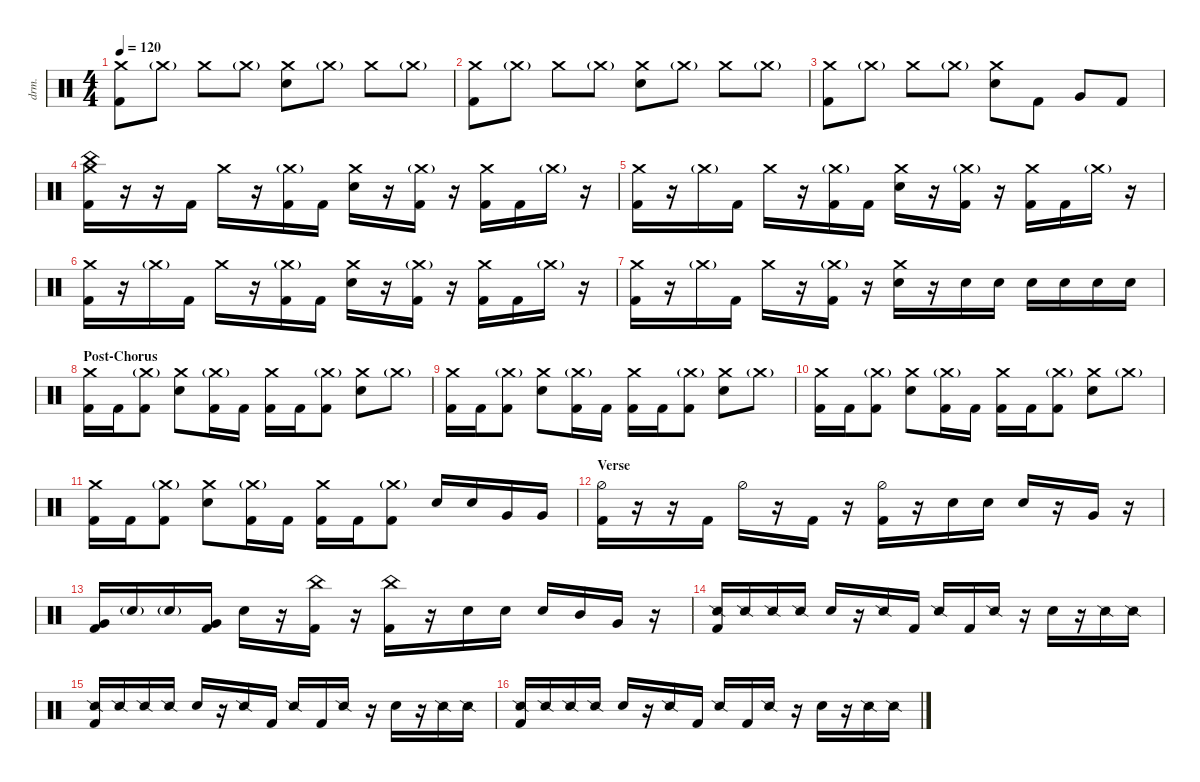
\defaultSystemsLayout 4
\hideDynamics
\bracketExtendMode nobrackets
\track ("Drums - Mario" "drm.") {instrument percussion}
\staff {score}
\articulation defaults
\ts (4 4)
\tempo 120
\clef neutral
\ks c
("Kick (hit) 2" "Crash medium (hit)").8{dy ff} "Crash medium (hit)"{g}.8 "Crash medium (hit)".8 "Crash medium (hit)"{g}.8 ("Crash medium (hit)" "Snare (hit) 2").8 "Crash medium (hit)"{g}.8 "Crash medium (hit)".8 "Crash medium (hit)"{g}.8 |
("Kick (hit) 2" "Crash medium (hit)").8 "Crash medium (hit)"{g}.8 "Crash medium (hit)".8 "Crash medium (hit)"{g}.8 ("Crash medium (hit)" "Snare (hit) 2").8 "Crash medium (hit)"{g}.8 "Crash medium (hit)".8 "Crash medium (hit)"{g}.8 |
("Kick (hit) 2" "Crash medium (hit)").8 "Crash medium (hit)"{g}.8 "Crash medium (hit)".8 "Crash medium (hit)"{g}.8 ("Crash medium (hit)" "Snare (hit) 2").8 "Kick (hit) 2".8 "Very Low Tom (hit)".8 "Kick (hit) 2".8 |
("China (hit)" "Kick (hit) 2" "Crash medium (hit)").16 r.16 r.16 "Kick (hit) 2".16 "Crash medium (hit)".16 r.16 ("Kick (hit) 2" "Crash medium (hit)"{g}).16 "Kick (hit) 2".16 ("Snare (hit) 2" "Crash medium (hit)").16 r.16 ("Kick (hit) 2" "Crash medium (hit)"{g}).16 r.16 ("Kick (hit) 2" "Crash medium (hit)").16 "Kick (hit) 2".16 "Crash medium (hit)"{g}.16 r.16 |
("Kick (hit) 2" "Crash medium (hit)").16 r.16 "Crash medium (hit)"{g}.16 "Kick (hit) 2".16 "Crash medium (hit)".16 r.16 ("Kick (hit) 2" "Crash medium (hit)"{g}).16 "Kick (hit) 2".16 ("Snare (hit) 2" "Crash medium (hit)").16 r.16 ("Kick (hit) 2" "Crash medium (hit)"{g}).16 r.16 ("Kick (hit) 2" "Crash medium (hit)").16 "Kick (hit) 2".16 "Crash medium (hit)"{g}.16 r.16 |
("Kick (hit) 2" "Crash medium (hit)").16 r.16 "Crash medium (hit)"{g}.16 "Kick (hit) 2".16 "Crash medium (hit)".16 r.16 ("Kick (hit) 2" "Crash medium (hit)"{g}).16 "Kick (hit) 2".16 ("Snare (hit) 2" "Crash medium (hit)").16 r.16 ("Kick (hit) 2" "Crash medium (hit)"{g}).16 r.16 ("Kick (hit) 2" "Crash medium (hit)").16 "Kick (hit) 2".16 "Crash medium (hit)"{g}.16 r.16 |
("Kick (hit) 2" "Crash medium (hit)").16 r.16 "Crash medium (hit)"{g}.16 "Kick (hit) 2".16 "Crash medium (hit)".16 r.16 ("Kick (hit) 2" "Crash medium (hit)"{g}).16 r.16 ("Snare (hit) 2" "Crash medium (hit)").16 r.16 "Snare (hit) 2".16 "Snare (hit) 2".16 "Snare (hit) 2".16 "Snare (hit) 2".16 "Snare (hit) 2".16 "Snare (hit) 2".16 |
\section ("" "Post-Chorus")
("Kick (hit) 2" "Crash medium (hit)").16 "Kick (hit) 2".16 ("Kick (hit) 2" "Crash medium (hit)"{g}).8 ("Snare (hit) 2" "Crash medium (hit)").8 ("Kick (hit) 2" "Crash medium (hit)"{g}).16 "Kick (hit) 2".16 ("Kick (hit) 2" "Crash medium (hit)").16 "Kick (hit) 2".16 ("Kick (hit) 2" "Crash medium (hit)"{g}).8 ("Snare (hit) 2" "Crash medium (hit)").8 "Crash medium (hit)"{g}.8 |
("Kick (hit) 2" "Crash medium (hit)").16 "Kick (hit) 2".16 ("Kick (hit) 2" "Crash medium (hit)"{g}).8 ("Snare (hit) 2" "Crash medium (hit)").8 ("Kick (hit) 2" "Crash medium (hit)"{g}).16 "Kick (hit) 2".16 ("Kick (hit) 2" "Crash medium (hit)").16 "Kick (hit) 2".16 ("Kick (hit) 2" "Crash medium (hit)"{g}).8 ("Snare (hit) 2" "Crash medium (hit)").8 "Crash medium (hit)"{g}.8 |
("Kick (hit) 2" "Crash medium (hit)").16 "Kick (hit) 2".16 ("Kick (hit) 2" "Crash medium (hit)"{g}).8 ("Snare (hit) 2" "Crash medium (hit)").8 ("Kick (hit) 2" "Crash medium (hit)"{g}).16 "Kick (hit) 2".16 ("Kick (hit) 2" "Crash medium (hit)").16 "Kick (hit) 2".16 ("Kick (hit) 2" "Crash medium (hit)"{g}).8 ("Snare (hit) 2" "Crash medium (hit)").8 "Crash medium (hit)"{g}.8 |
("Kick (hit) 2" "Crash medium (hit)").16 "Kick (hit) 2".16 ("Kick (hit) 2" "Crash medium (hit)"{g}).8 ("Snare (hit) 2" "Crash medium (hit)").8 ("Kick (hit) 2" "Crash medium (hit)"{g}).16 "Kick (hit) 2".16 ("Kick (hit) 2" "Crash medium (hit)").16 "Kick (hit) 2".16 ("Kick (hit) 2" "Crash medium (hit)"{g}).8 "Snare (hit) 2".16 "Snare (hit) 2".16 "Very Low Tom (hit)".16 "Very Low Tom (hit)".16 |
\section ("" "Verse")
("Kick (hit) 2" "Hi-Hat (half)").16 r.16 r.16 "Kick (hit) 2".16 "Hi-Hat (half)".16 r.16 "Kick (hit) 2".16 r.16 ("Kick (hit) 2" "Hi-Hat (half)").16 r.16 "Snare (hit) 2".16{dy mf} "Snare (hit) 2".16 "Snare (hit) 2".16{dy ff} r.16 "Very Low Tom (hit)".16 r.16 |
("Very Low Tom (hit)" "Kick (hit) 2").16 "Snare (hit) 2"{g}.16 "Snare (hit) 2"{g}.16 ("Very Low Tom (hit)" "Kick (hit) 2").16 "Snare (hit) 2".16 r.16 ("Kick (hit) 2" "China (hit)").16 r.16 ("Kick (hit) 2" "China (hit)").16 r.16 "Snare (hit) 2".16 "Snare (hit) 2".16 "Snare (hit) 2".16 "Mid Tom (hit)".16 "Very Low Tom (hit)".16 r.16 |
("Kick (hit) 2" "Snare (side stick) 2").16 "Snare (side stick) 2".16 "Snare (side stick) 2".16 "Snare (side stick) 2".16 "Snare (hit) 2".16 r.16 "Snare (side stick) 2".16 "Kick (hit) 2".16 "Snare (side stick) 2".16 "Kick (hit) 2".16 "Snare (side stick) 2".16 r.16 "Snare (hit) 2".16 r.16 "Snare (side stick) 2".16 "Snare (side stick) 2".16 |
("Kick (hit) 2" "Snare (side stick) 2").16 "Snare (side stick) 2".16 "Snare (side stick) 2".16 "Snare (side stick) 2".16 "Snare (hit) 2".16 r.16 "Snare (side stick) 2".16 "Kick (hit) 2".16 "Snare (side stick) 2".16 "Kick (hit) 2".16 "Snare (side stick) 2".16 r.16 "Snare (hit) 2".16 r.16 "Snare (side stick) 2".16 "Snare (side stick) 2".16 |
("Kick (hit) 2" "Snare (side stick) 2").16 "Snare (side stick) 2".16 "Snare (side stick) 2".16 "Snare (side stick) 2".16 "Snare (hit) 2".16 r.16 "Snare (side stick) 2".16 "Kick (hit) 2".16 "Snare (side stick) 2".16 "Kick (hit) 2".16 "Snare (side stick) 2".16 r.16 "Snare (hit) 2".16 r.16 "Snare (side stick) 2".16 "Snare (side stick) 2".16
